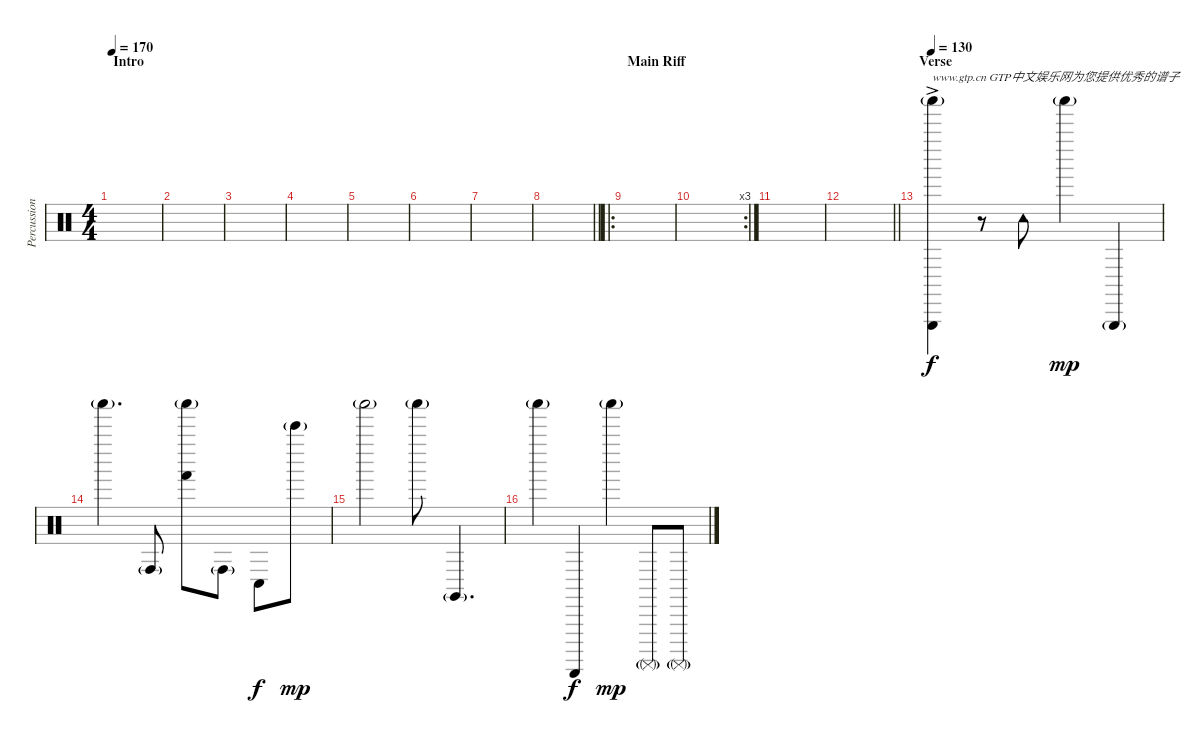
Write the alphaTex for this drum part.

\track ("Percussion / FX" "Percussion") {instrument percussion}
\staff {score}
\articulation defaults
\ts (4 4)
\section ("" "Intro")
\tempo 170
\clef neutral
\ks c
|
|
|
|
|
|
|
\barLineRight lightlight
|
\ro
\section ("" "Main Riff")
|
\rc 3
|
|
\barLineRight lightlight
|
\section ("" "Verse")
\tempo 130
("Triangle (hit)"{ac} "Shaker (hit)"{g}).4{txt "www.gtp.cn GTP中文娱乐网为您提供优秀的谱子"} r.8 "Tambourine (hit)".8{dy f} "Shaker (hit)"{g}.4{dy mp} "Triangle (hit)"{g}.4 |
"Shaker (hit)"{g}.4{d} "Conga high (hit)"{g}.8 ("Shaker (hit)"{g} "Hand (hit)").8 "Conga high (hit)"{g}.8 "Conga low (hit)".8{dy f} "Bell Tree (hit)"{g}.8{dy mp} |
"Shaker (hit)"{g}.2 "Shaker (hit)"{g}.8 "Claves (hit)"{g}.4{d} |
"Shaker (hit)"{g}.4 "Guiro (scrap-return)".4{dy f} "Shaker (hit)"{g}.4{dy mp} "Surdo (mute)"{g}.8 "Surdo (mute)"{g}.8
